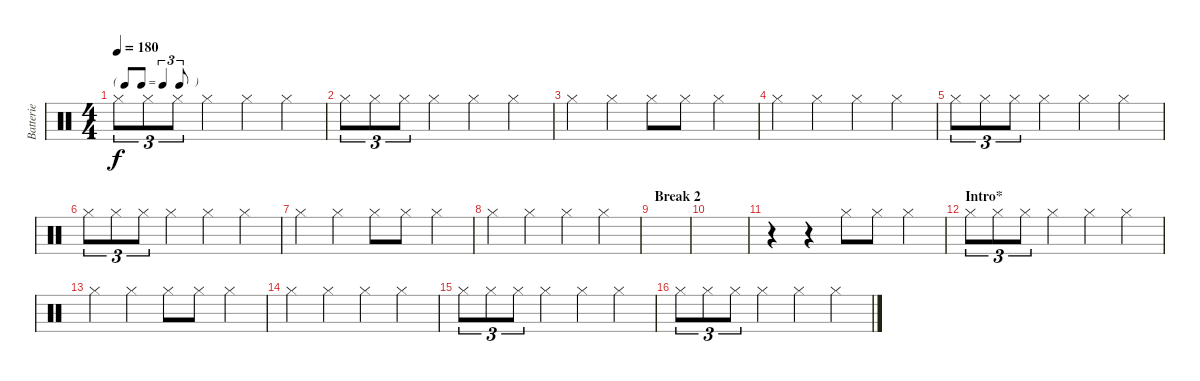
\track ("Batterie" "Batterie") {instrument percussion}
\staff {score}
\articulation defaults
\ts (4 4)
\tf triplet8th
\tempo 180
\clef neutral
\ks c "Hi-Hat (closed)".8{tu (3 2) dy f} "Hi-Hat (closed)".8{tu (3 2)} "Hi-Hat (closed)".8{tu (3 2)} "Hi-Hat (closed)".4 "Hi-Hat (closed)".4 "Hi-Hat (closed)".4
|
"Hi-Hat (closed)".8{tu (3 2)} "Hi-Hat (closed)".8{tu (3 2)} "Hi-Hat (closed)".8{tu (3 2)} "Hi-Hat (closed)".4 "Hi-Hat (closed)".4 "Hi-Hat (closed)".4 |
"Hi-Hat (closed)".4 "Hi-Hat (closed)".4 "Hi-Hat (closed)".8 "Hi-Hat (closed)".8 "Hi-Hat (closed)".4 |
"Hi-Hat (closed)".4 "Hi-Hat (closed)".4 "Hi-Hat (closed)".4 "Hi-Hat (closed)".4 |
"Hi-Hat (closed)".8{tu (3 2)} "Hi-Hat (closed)".8{tu (3 2)} "Hi-Hat (closed)".8{tu (3 2)} "Hi-Hat (closed)".4 "Hi-Hat (closed)".4 "Hi-Hat (closed)".4 |
"Hi-Hat (closed)".8{tu (3 2)} "Hi-Hat (closed)".8{tu (3 2)} "Hi-Hat (closed)".8{tu (3 2)} "Hi-Hat (closed)".4 "Hi-Hat (closed)".4 "Hi-Hat (closed)".4 |
"Hi-Hat (closed)".4 "Hi-Hat (closed)".4 "Hi-Hat (closed)".8 "Hi-Hat (closed)".8 "Hi-Hat (closed)".4 |
"Hi-Hat (closed)".4 "Hi-Hat (closed)".4 "Hi-Hat (closed)".4 "Hi-Hat (closed)".4 |
\section ("" "Break 2")
|
|
r.4 r.4 "Hi-Hat (closed)".8 "Hi-Hat (closed)".8 "Hi-Hat (closed)".4 |
\section ("" "Intro*")
"Hi-Hat (closed)".8{tu (3 2)} "Hi-Hat (closed)".8{tu (3 2)} "Hi-Hat (closed)".8{tu (3 2)} "Hi-Hat (closed)".4 "Hi-Hat (closed)".4 "Hi-Hat (closed)".4 |
"Hi-Hat (closed)".4 "Hi-Hat (closed)".4 "Hi-Hat (closed)".8 "Hi-Hat (closed)".8 "Hi-Hat (closed)".4 |
"Hi-Hat (closed)".4 "Hi-Hat (closed)".4 "Hi-Hat (closed)".4 "Hi-Hat (closed)".4 |
"Hi-Hat (closed)".8{tu (3 2)} "Hi-Hat (closed)".8{tu (3 2)} "Hi-Hat (closed)".8{tu (3 2)} "Hi-Hat (closed)".4 "Hi-Hat (closed)".4 "Hi-Hat (closed)".4 |
"Hi-Hat (closed)".8{tu (3 2)} "Hi-Hat (closed)".8{tu (3 2)} "Hi-Hat (closed)".8{tu (3 2)} "Hi-Hat (closed)".4 "Hi-Hat (closed)".4 "Hi-Hat (closed)".4
